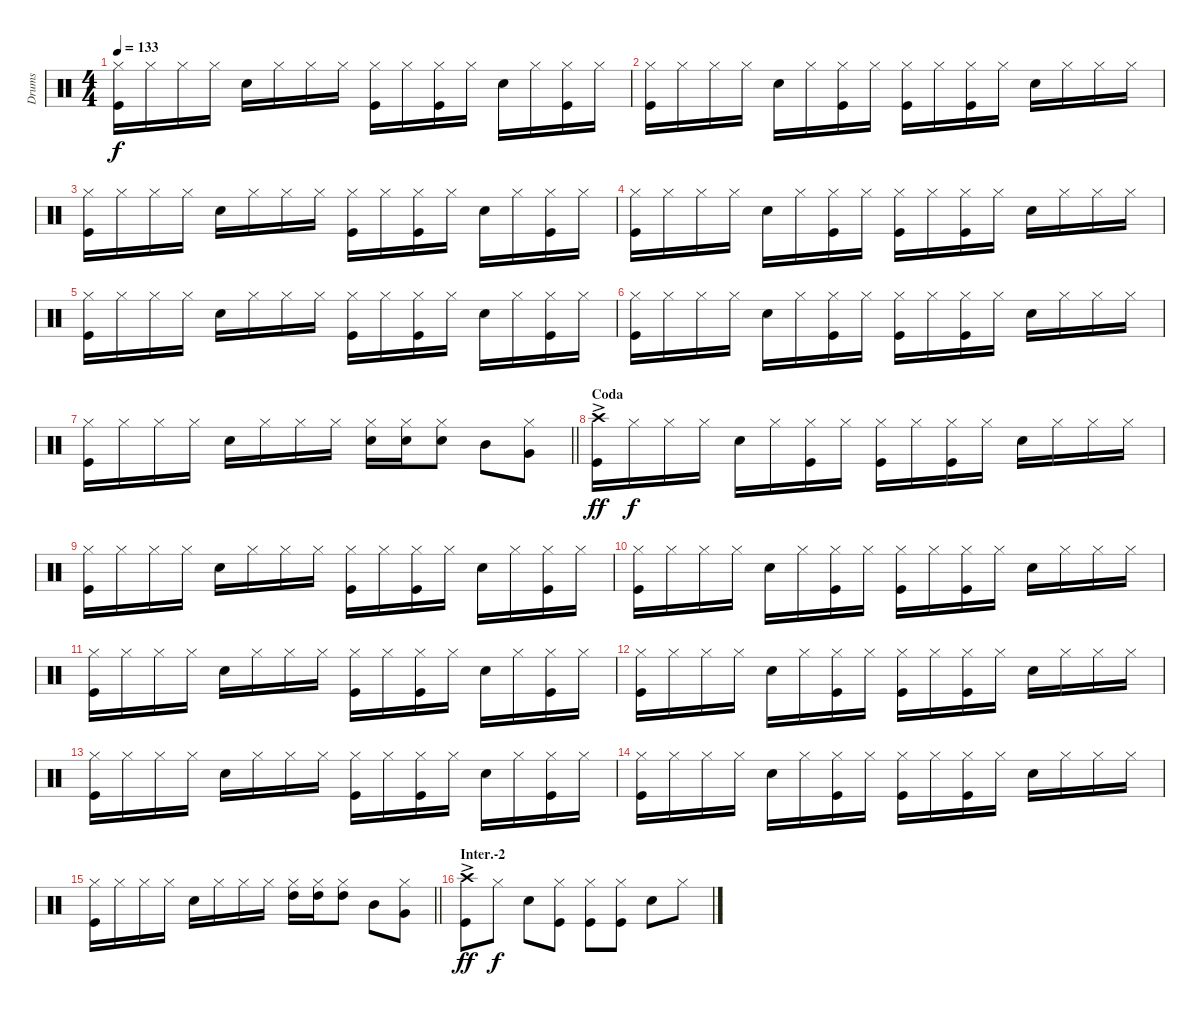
\track ("Drums" "Drums") {instrument percussion}
\staff {score}
\articulation defaults
\ts (4 4)
\tempo 133
\clef neutral
\ks c
("Hi-Hat (closed)" "Kick (hit)").16{dy f} "Hi-Hat (closed)".16 "Hi-Hat (closed)".16 "Hi-Hat (closed)".16 "Snare (hit) 2".16 "Hi-Hat (closed)".16 "Hi-Hat (closed)".16 "Hi-Hat (closed)".16 ("Hi-Hat (closed)" "Kick (hit)").16 "Hi-Hat (closed)".16 ("Hi-Hat (closed)" "Kick (hit)").16 "Hi-Hat (closed)".16 "Snare (hit) 2".16 "Hi-Hat (closed)".16 ("Hi-Hat (closed)" "Kick (hit)").16 "Hi-Hat (closed)".16 |
("Hi-Hat (closed)" "Kick (hit)").16 "Hi-Hat (closed)".16 "Hi-Hat (closed)".16 "Hi-Hat (closed)".16 "Snare (hit) 2".16 "Hi-Hat (closed)".16 ("Hi-Hat (closed)" "Kick (hit)").16 "Hi-Hat (closed)".16 ("Kick (hit)" "Hi-Hat (closed)").16 "Hi-Hat (closed)".16 ("Hi-Hat (closed)" "Kick (hit)").16 "Hi-Hat (closed)".16 "Snare (hit) 2".16 "Hi-Hat (closed)".16 "Hi-Hat (closed)".16 "Hi-Hat (closed)".16 |
("Kick (hit)" "Hi-Hat (closed)").16 "Hi-Hat (closed)".16 "Hi-Hat (closed)".16 "Hi-Hat (closed)".16 "Snare (hit) 2".16 "Hi-Hat (closed)".16 "Hi-Hat (closed)".16 "Hi-Hat (closed)".16 ("Hi-Hat (closed)" "Kick (hit)").16 "Hi-Hat (closed)".16 ("Hi-Hat (closed)" "Kick (hit)").16 "Hi-Hat (closed)".16 "Snare (hit) 2".16 "Hi-Hat (closed)".16 ("Hi-Hat (closed)" "Kick (hit)").16 "Hi-Hat (closed)".16 |
("Hi-Hat (closed)" "Kick (hit)").16 "Hi-Hat (closed)".16 "Hi-Hat (closed)".16 "Hi-Hat (closed)".16 "Snare (hit) 2".16 "Hi-Hat (closed)".16 ("Hi-Hat (closed)" "Kick (hit)").16 "Hi-Hat (closed)".16 ("Hi-Hat (closed)" "Kick (hit)").16 "Hi-Hat (closed)".16 ("Hi-Hat (closed)" "Kick (hit)").16 "Hi-Hat (closed)".16 "Snare (hit) 2".16 "Hi-Hat (closed)".16 "Hi-Hat (closed)".16 "Hi-Hat (closed)".16 |
("Kick (hit)" "Hi-Hat (closed)").16 "Hi-Hat (closed)".16 "Hi-Hat (closed)".16 "Hi-Hat (closed)".16 "Snare (hit) 2".16 "Hi-Hat (closed)".16 "Hi-Hat (closed)".16 "Hi-Hat (closed)".16 ("Hi-Hat (closed)" "Kick (hit)").16 "Hi-Hat (closed)".16 ("Hi-Hat (closed)" "Kick (hit)").16 "Hi-Hat (closed)".16 "Snare (hit) 2".16 "Hi-Hat (closed)".16 ("Kick (hit)" "Hi-Hat (closed)").16 "Hi-Hat (closed)".16 |
("Hi-Hat (closed)" "Kick (hit)").16 "Hi-Hat (closed)".16 "Hi-Hat (closed)".16 "Hi-Hat (closed)".16 "Snare (hit) 2".16 "Hi-Hat (closed)".16 ("Hi-Hat (closed)" "Kick (hit)").16 "Hi-Hat (closed)".16 ("Hi-Hat (closed)" "Kick (hit)").16 "Hi-Hat (closed)".16 ("Hi-Hat (closed)" "Kick (hit)").16 "Hi-Hat (closed)".16 "Snare (hit) 2".16 "Hi-Hat (closed)".16 "Hi-Hat (closed)".16 "Hi-Hat (closed)".16 |
\barLineRight lightlight
("Hi-Hat (closed)" "Kick (hit)").16 "Hi-Hat (closed)".16 "Hi-Hat (closed)".16 "Hi-Hat (closed)".16 "Snare (hit) 2".16 "Hi-Hat (closed)".16 "Hi-Hat (closed)".16 "Hi-Hat (closed)".16 ("Hi-Hat (closed)" "Snare (hit) 2").16 ("Hi-Hat (closed)" "Snare (hit) 2").16 ("Hi-Hat (closed)" "Snare (hit) 2").8 "Mid Tom (hit)".8 ("Hi-Hat (closed)" "Very Low Tom (hit)").8 |
\section ("" "Coda")
("Crash high (hit)"{ac} "Kick (hit)").16{dy ff} "Hi-Hat (closed)".16{dy f} "Hi-Hat (closed)".16 "Hi-Hat (closed)".16 "Snare (hit) 2".16 "Hi-Hat (closed)".16 ("Kick (hit)" "Hi-Hat (closed)").16 "Hi-Hat (closed)".16 ("Hi-Hat (closed)" "Kick (hit)").16 "Hi-Hat (closed)".16 ("Hi-Hat (closed)" "Kick (hit)").16 "Hi-Hat (closed)".16 "Snare (hit) 2".16 "Hi-Hat (closed)".16 "Hi-Hat (closed)".16 "Hi-Hat (closed)".16 |
("Hi-Hat (closed)" "Kick (hit)").16 "Hi-Hat (closed)".16 "Hi-Hat (closed)".16 "Hi-Hat (closed)".16 "Snare (hit) 2".16 "Hi-Hat (closed)".16 "Hi-Hat (closed)".16 "Hi-Hat (closed)".16 ("Hi-Hat (closed)" "Kick (hit)").16 "Hi-Hat (closed)".16 ("Hi-Hat (closed)" "Kick (hit)").16 "Hi-Hat (closed)".16 "Snare (hit) 2".16 "Hi-Hat (closed)".16 ("Hi-Hat (closed)" "Kick (hit)").16 "Hi-Hat (closed)".16 |
("Hi-Hat (closed)" "Kick (hit)").16 "Hi-Hat (closed)".16 "Hi-Hat (closed)".16 "Hi-Hat (closed)".16 "Snare (hit) 2".16 "Hi-Hat (closed)".16 ("Hi-Hat (closed)" "Kick (hit)").16 "Hi-Hat (closed)".16 ("Hi-Hat (closed)" "Kick (hit)").16 "Hi-Hat (closed)".16 ("Hi-Hat (closed)" "Kick (hit)").16 "Hi-Hat (closed)".16 "Snare (hit) 2".16 "Hi-Hat (closed)".16 "Hi-Hat (closed)".16 "Hi-Hat (closed)".16 |
("Hi-Hat (closed)" "Kick (hit)").16 "Hi-Hat (closed)".16 "Hi-Hat (closed)".16 "Hi-Hat (closed)".16 "Snare (hit) 2".16 "Hi-Hat (closed)".16 "Hi-Hat (closed)".16 "Hi-Hat (closed)".16 ("Hi-Hat (closed)" "Kick (hit)").16 "Hi-Hat (closed)".16 ("Kick (hit)" "Hi-Hat (closed)").16 "Hi-Hat (closed)".16 "Snare (hit) 2".16 "Hi-Hat (closed)".16 ("Hi-Hat (closed)" "Kick (hit)").16 "Hi-Hat (closed)".16 |
("Hi-Hat (closed)" "Kick (hit)").16 "Hi-Hat (closed)".16 "Hi-Hat (closed)".16 "Hi-Hat (closed)".16 "Snare (hit) 2".16 "Hi-Hat (closed)".16 ("Hi-Hat (closed)" "Kick (hit)").16 "Hi-Hat (closed)".16 ("Hi-Hat (closed)" "Kick (hit)").16 "Hi-Hat (closed)".16 ("Hi-Hat (closed)" "Kick (hit)").16 "Hi-Hat (closed)".16 "Snare (hit) 2".16 "Hi-Hat (closed)".16 "Hi-Hat (closed)".16 "Hi-Hat (closed)".16 |
("Hi-Hat (closed)" "Kick (hit)").16 "Hi-Hat (closed)".16 "Hi-Hat (closed)".16 "Hi-Hat (closed)".16 "Snare (hit) 2".16 "Hi-Hat (closed)".16 "Hi-Hat (closed)".16 "Hi-Hat (closed)".16 ("Hi-Hat (closed)" "Kick (hit)").16 "Hi-Hat (closed)".16 ("Kick (hit)" "Hi-Hat (closed)").16 "Hi-Hat (closed)".16 "Snare (hit) 2".16 "Hi-Hat (closed)".16 ("Hi-Hat (closed)" "Kick (hit)").16 "Hi-Hat (closed)".16 |
("Hi-Hat (closed)" "Kick (hit)").16 "Hi-Hat (closed)".16 "Hi-Hat (closed)".16 "Hi-Hat (closed)".16 "Snare (hit) 2".16 "Hi-Hat (closed)".16 ("Hi-Hat (closed)" "Kick (hit)").16 "Hi-Hat (closed)".16 ("Hi-Hat (closed)" "Kick (hit)").16 "Hi-Hat (closed)".16 ("Hi-Hat (closed)" "Kick (hit)").16 "Hi-Hat (closed)".16 "Snare (hit) 2".16 "Hi-Hat (closed)".16 "Hi-Hat (closed)".16 "Hi-Hat (closed)".16 |
\barLineRight lightlight
("Kick (hit)" "Hi-Hat (closed)").16 "Hi-Hat (closed)".16 "Hi-Hat (closed)".16 "Hi-Hat (closed)".16 "Snare (hit) 2".16 "Hi-Hat (closed)".16 "Hi-Hat (closed)".16 "Hi-Hat (closed)".16 ("Hi-Hat (closed)" "High Tom (hit)").16 ("High Tom (hit)" "Hi-Hat (closed)").16 ("Hi-Hat (closed)" "High Tom (hit)").8 "Mid Tom (hit)".8 ("Very Low Tom (hit)" "Hi-Hat (closed)").8 |
\section ("" "Inter.-2")
("Crash high (hit)"{ac} "Kick (hit)").8{dy ff} "Hi-Hat (closed)".8{dy f} "Snare (hit) 2".8 ("Hi-Hat (closed)" "Kick (hit)").8 ("Hi-Hat (closed)" "Kick (hit)").8 ("Hi-Hat (closed)" "Kick (hit)").8 "Snare (hit) 2".8 "Hi-Hat (closed)".8
